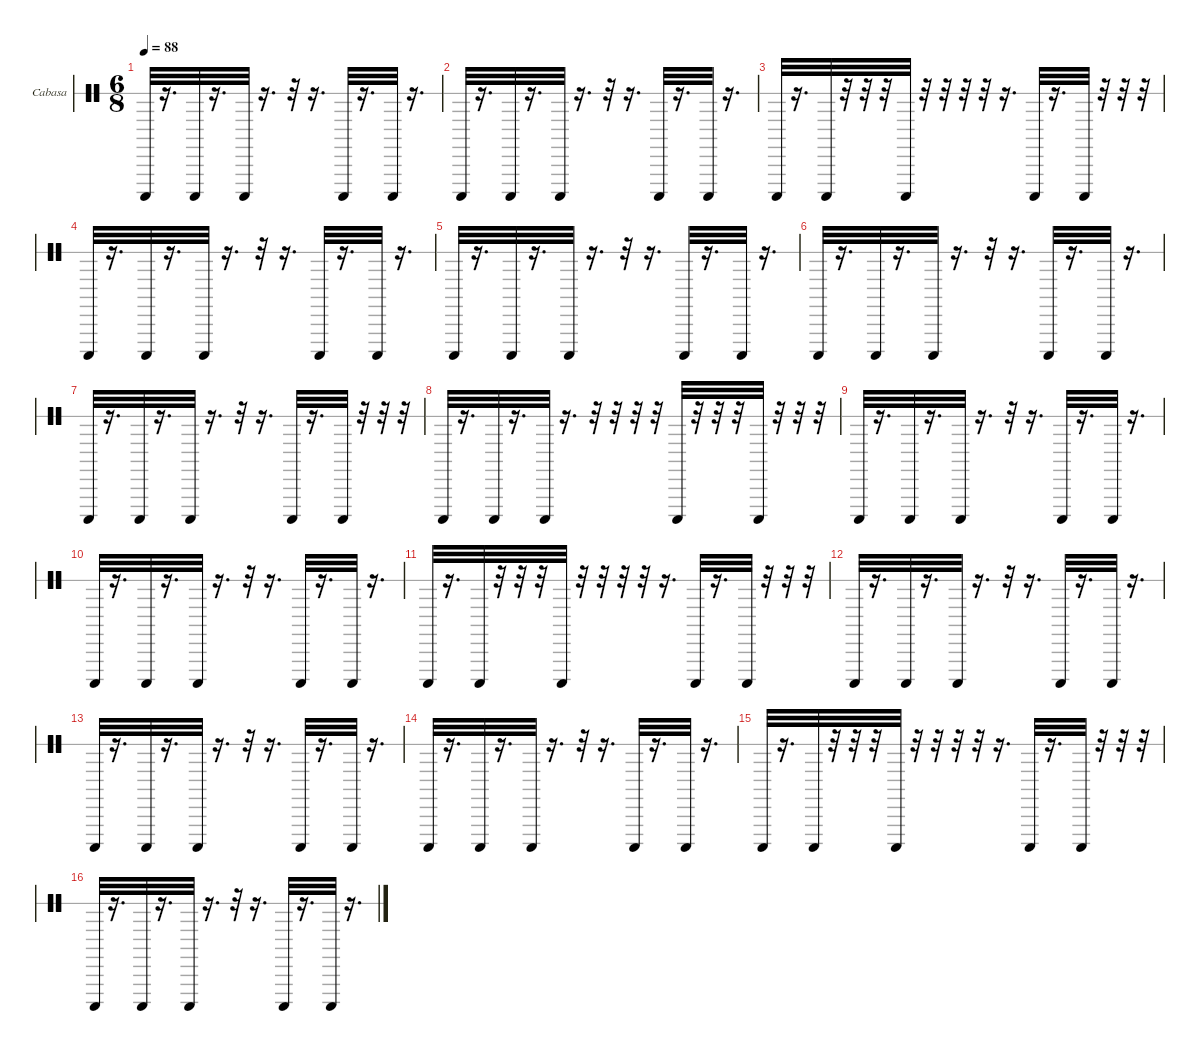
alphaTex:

\hideDynamics
\bracketExtendMode nobrackets
\firstSystemTrackNameOrientation horizontal
\otherSystemsTrackNameOrientation horizontal
\track ("Cabasa" "Cabasa") {instrument percussion}
\staff {score 1}
\articulation defaults
\ts (6 8)
\tempo 88
\clef neutral
\ks c "Cabasa (hit)".32{dy fff}
r.16{d} "Cabasa (hit)".32{dy mf} r.16{d} "Cabasa (hit)".32{dy mp} r.16{d} r.32 r.16{d} "Cabasa (hit)".32{dy mf} r.16{d} "Cabasa (hit)".32{dy mp} r.16{d} |
"Cabasa (hit)".32{dy fff} r.16{d} "Cabasa (hit)".32{dy mf} r.16{d} "Cabasa (hit)".32{dy mp} r.16{d} r.32 r.16{d} "Cabasa (hit)".32{dy mf} r.16{d} "Cabasa (hit)".32{dy mp} r.16{d} |
"Cabasa (hit)".32{dy fff} r.16{d} "Cabasa (hit)".32{dy mf} r.32 r.32 r.32 "Cabasa (hit)".32{dy ff} r.32 r.32 r.32 r.32 r.16{d} "Cabasa (hit)".32 r.16{d} "Cabasa (hit)".32{dy f} r.32 r.32 r.32 |
"Cabasa (hit)".32{dy fff} r.16{d} "Cabasa (hit)".32{dy mf} r.16{d} "Cabasa (hit)".32{dy mp} r.16{d} r.32 r.16{d} "Cabasa (hit)".32{dy mf} r.16{d} "Cabasa (hit)".32{dy mp} r.16{d} |
"Cabasa (hit)".32{dy fff} r.16{d} "Cabasa (hit)".32{dy mf} r.16{d} "Cabasa (hit)".32{dy mp} r.16{d} r.32 r.16{d} "Cabasa (hit)".32{dy mf} r.16{d} "Cabasa (hit)".32{dy mp} r.16{d} |
"Cabasa (hit)".32{dy fff} r.16{d} "Cabasa (hit)".32{dy mf} r.16{d} "Cabasa (hit)".32{dy mp} r.16{d} r.32 r.16{d} "Cabasa (hit)".32{dy mf} r.16{d} "Cabasa (hit)".32{dy mp} r.16{d} |
"Cabasa (hit)".32{dy fff} r.16{d} "Cabasa (hit)".32{dy mf} r.16{d} "Cabasa (hit)".32{dy mp} r.16{d} r.32 r.16{d} "Cabasa (hit)".32{dy mf} r.16{d} "Cabasa (hit)".32{dy f} r.32 r.32 r.32 |
"Cabasa (hit)".32{dy fff} r.16{d} "Cabasa (hit)".32{dy mf} r.16{d} "Cabasa (hit)".32{dy mp} r.16{d} r.32 r.32 r.32 r.32 "Cabasa (hit)".32{dy mf} r.32 r.32 r.32 "Cabasa (hit)".32 r.32 r.32 r.32 |
"Cabasa (hit)".32{dy fff} r.16{d} "Cabasa (hit)".32{dy mf} r.16{d} "Cabasa (hit)".32{dy mp} r.16{d} r.32 r.16{d} "Cabasa (hit)".32{dy mf} r.16{d} "Cabasa (hit)".32{dy mp} r.16{d} |
"Cabasa (hit)".32{dy fff} r.16{d} "Cabasa (hit)".32{dy mf} r.16{d} "Cabasa (hit)".32{dy mp} r.16{d} r.32 r.16{d} "Cabasa (hit)".32{dy mf} r.16{d} "Cabasa (hit)".32{dy mp} r.16{d} |
"Cabasa (hit)".32{dy fff} r.16{d} "Cabasa (hit)".32{dy mf} r.32 r.32 r.32 "Cabasa (hit)".32{dy ff} r.32 r.32 r.32 r.32 r.16{d} "Cabasa (hit)".32 r.16{d} "Cabasa (hit)".32{dy f} r.32 r.32 r.32 |
"Cabasa (hit)".32{dy fff} r.16{d} "Cabasa (hit)".32{dy mf} r.16{d} "Cabasa (hit)".32{dy mp} r.16{d} r.32 r.16{d} "Cabasa (hit)".32{dy mf} r.16{d} "Cabasa (hit)".32{dy mp} r.16{d} |
"Cabasa (hit)".32{dy fff} r.16{d} "Cabasa (hit)".32{dy mf} r.16{d} "Cabasa (hit)".32{dy mp} r.16{d} r.32 r.16{d} "Cabasa (hit)".32{dy mf} r.16{d} "Cabasa (hit)".32{dy mp} r.16{d} |
"Cabasa (hit)".32{dy fff} r.16{d} "Cabasa (hit)".32{dy mf} r.16{d} "Cabasa (hit)".32{dy mp} r.16{d} r.32 r.16{d} "Cabasa (hit)".32{dy mf} r.16{d} "Cabasa (hit)".32{dy mp} r.16{d} |
"Cabasa (hit)".32{dy fff} r.16{d} "Cabasa (hit)".32{dy mf} r.32 r.32 r.32 "Cabasa (hit)".32{dy ff} r.32 r.32 r.32 r.32 r.16{d} "Cabasa (hit)".32 r.16{d} "Cabasa (hit)".32{dy f} r.32 r.32 r.32 |
"Cabasa (hit)".32{dy fff} r.16{d} "Cabasa (hit)".32{dy mf} r.16{d} "Cabasa (hit)".32{dy mp} r.16{d} r.32 r.16{d} "Cabasa (hit)".32{dy mf} r.16{d} "Cabasa (hit)".32{dy mp} r.16{d}
